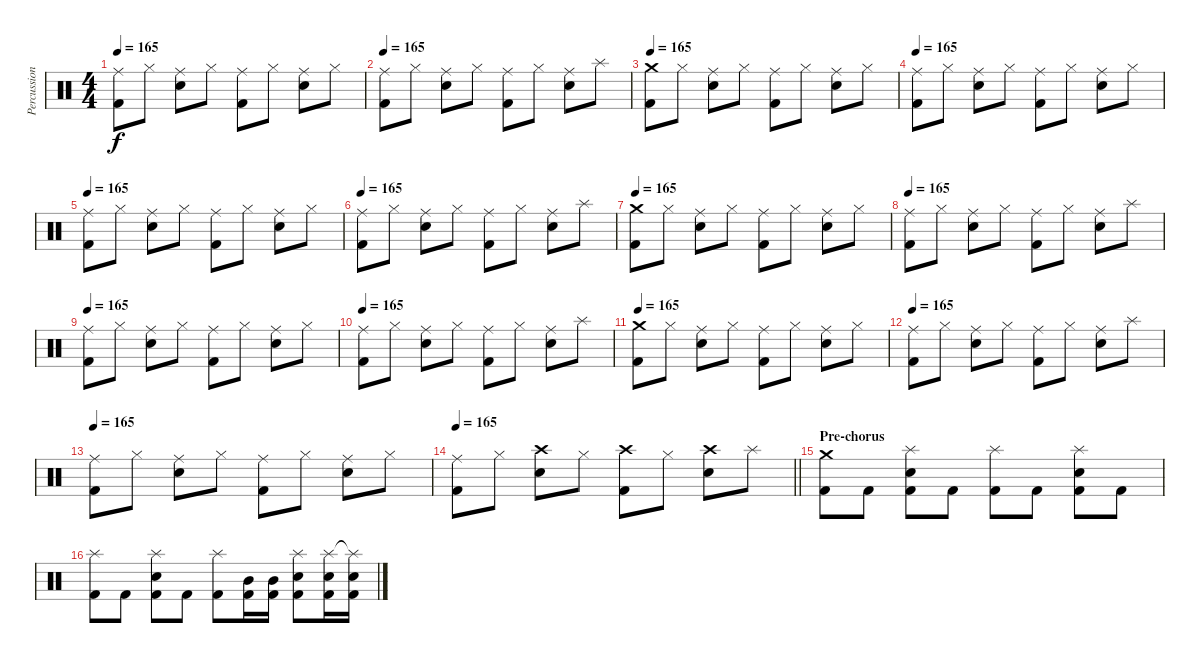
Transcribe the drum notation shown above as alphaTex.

\track ("Percussion" "Percussion") {instrument percussion}
\staff {score}
\articulation defaults
\ts (4 4)
\tempo 165
\clef neutral
\ks c
("Ride (middle)" "Kick (hit) 2").8{dy f} "Hi-Hat (closed)".8 ("Ride (middle)" "Electric Snare (hit)").8 "Hi-Hat (closed)".8 ("Ride (middle)" "Kick (hit) 2").8 "Hi-Hat (closed)".8 ("Ride (middle)" "Electric Snare (hit)").8 "Hi-Hat (closed)".8 |
\tempo 165
("Ride (middle)" "Kick (hit) 2").8 "Hi-Hat (closed)".8 ("Ride (middle)" "Electric Snare (hit)").8 "Hi-Hat (closed)".8 ("Ride (middle)" "Kick (hit) 2").8 "Hi-Hat (closed)".8 ("Ride (middle)" "Electric Snare (hit)").8 "Splash (hit)".8 |
\tempo 165
("Crash medium (hit)" "Kick (hit) 2").8 "Hi-Hat (closed)".8 ("Ride (middle)" "Electric Snare (hit)").8 "Hi-Hat (closed)".8 ("Ride (middle)" "Kick (hit) 2").8 "Hi-Hat (closed)".8 ("Ride (middle)" "Electric Snare (hit)").8 "Hi-Hat (closed)".8 |
\tempo 165
("Ride (middle)" "Kick (hit) 2").8 "Hi-Hat (closed)".8 ("Ride (middle)" "Electric Snare (hit)").8 "Hi-Hat (closed)".8 ("Ride (middle)" "Kick (hit) 2").8 "Hi-Hat (closed)".8 ("Ride (middle)" "Electric Snare (hit)").8 "Hi-Hat (closed)".8 |
\tempo 165
("Ride (middle)" "Kick (hit) 2").8 "Hi-Hat (closed)".8 ("Ride (middle)" "Electric Snare (hit)").8 "Hi-Hat (closed)".8 ("Ride (middle)" "Kick (hit) 2").8 "Hi-Hat (closed)".8 ("Ride (middle)" "Electric Snare (hit)").8 "Hi-Hat (closed)".8 |
\tempo 165
("Ride (middle)" "Kick (hit) 2").8 "Hi-Hat (closed)".8 ("Ride (middle)" "Electric Snare (hit)").8 "Hi-Hat (closed)".8 ("Ride (middle)" "Kick (hit) 2").8 "Hi-Hat (closed)".8 ("Ride (middle)" "Electric Snare (hit)").8 "Splash (hit)".8 |
\tempo 165
("Crash medium (hit)" "Kick (hit) 2").8 "Hi-Hat (closed)".8 ("Ride (middle)" "Electric Snare (hit)").8 "Hi-Hat (closed)".8 ("Ride (middle)" "Kick (hit) 2").8 "Hi-Hat (closed)".8 ("Ride (middle)" "Electric Snare (hit)").8 "Hi-Hat (closed)".8 |
\tempo 165
("Ride (middle)" "Kick (hit) 2").8 "Hi-Hat (closed)".8 ("Ride (middle)" "Electric Snare (hit)").8 "Hi-Hat (closed)".8 ("Ride (middle)" "Kick (hit) 2").8 "Hi-Hat (closed)".8 ("Ride (middle)" "Electric Snare (hit)").8 "Splash (hit)".8 |
\tempo 165
("Ride (middle)" "Kick (hit) 2").8 "Hi-Hat (closed)".8 ("Ride (middle)" "Electric Snare (hit)").8 "Hi-Hat (closed)".8 ("Ride (middle)" "Kick (hit) 2").8 "Hi-Hat (closed)".8 ("Ride (middle)" "Electric Snare (hit)").8 "Hi-Hat (closed)".8 |
\tempo 165
("Ride (middle)" "Kick (hit) 2").8 "Hi-Hat (closed)".8 ("Ride (middle)" "Electric Snare (hit)").8 "Hi-Hat (closed)".8 ("Ride (middle)" "Kick (hit) 2").8 "Hi-Hat (closed)".8 ("Ride (middle)" "Electric Snare (hit)").8 "Splash (hit)".8 |
\tempo 165
("Crash medium (hit)" "Kick (hit) 2").8 "Hi-Hat (closed)".8 ("Ride (middle)" "Electric Snare (hit)").8 "Hi-Hat (closed)".8 ("Ride (middle)" "Kick (hit) 2").8 "Hi-Hat (closed)".8 ("Ride (middle)" "Electric Snare (hit)").8 "Hi-Hat (closed)".8 |
\tempo 165
("Ride (middle)" "Kick (hit) 2").8 "Hi-Hat (closed)".8 ("Ride (middle)" "Electric Snare (hit)").8 "Hi-Hat (closed)".8 ("Ride (middle)" "Kick (hit) 2").8 "Hi-Hat (closed)".8 ("Ride (middle)" "Electric Snare (hit)").8 "Splash (hit)".8 |
\tempo 165
("Ride (middle)" "Kick (hit) 2").8 "Hi-Hat (closed)".8 ("Ride (middle)" "Electric Snare (hit)").8 "Hi-Hat (closed)".8 ("Ride (middle)" "Kick (hit) 2").8 "Hi-Hat (closed)".8 ("Ride (middle)" "Electric Snare (hit)").8 "Hi-Hat (closed)".8 |
\tempo 165
\barLineRight lightlight
("Ride (middle)" "Kick (hit) 2").8 "Hi-Hat (closed)".8 ("Crash high (hit)" "Electric Snare (hit)").8 "Hi-Hat (closed)".8 ("Crash high (hit)" "Kick (hit) 2").8 "Hi-Hat (closed)".8 ("Crash high (hit)" "Electric Snare (hit)").8 "Splash (hit)".8 |
\section ("" "Pre-chorus")
("Crash medium (hit)" "Kick (hit) 2").8 "Kick (hit) 2".8 ("Splash (hit)" "Electric Snare (hit)" "Kick (hit) 2").8 "Kick (hit) 2".8 ("Splash (hit)" "Kick (hit) 2").8 "Kick (hit) 2".8 ("Splash (hit)" "Electric Snare (hit)" "Kick (hit) 2").8 "Kick (hit) 2".8 |
("Splash (hit)" "Kick (hit) 2").8 "Kick (hit) 2".8 ("Splash (hit)" "Electric Snare (hit)" "Kick (hit) 2").8 "Kick (hit) 2".8 ("Splash (hit)" "Kick (hit) 2").8 ("Mid Tom (hit)" "Kick (hit) 2").16 ("Mid Tom (hit)" "Kick (hit) 2").16 ("Splash (hit)" "Electric Snare (hit)" "Kick (hit) 2").8 ("Splash (hit)" "Electric Snare (hit)" "Kick (hit) 2").16 ("Splash (hit)"{t} "Electric Snare (hit)" "Kick (hit) 2").16
